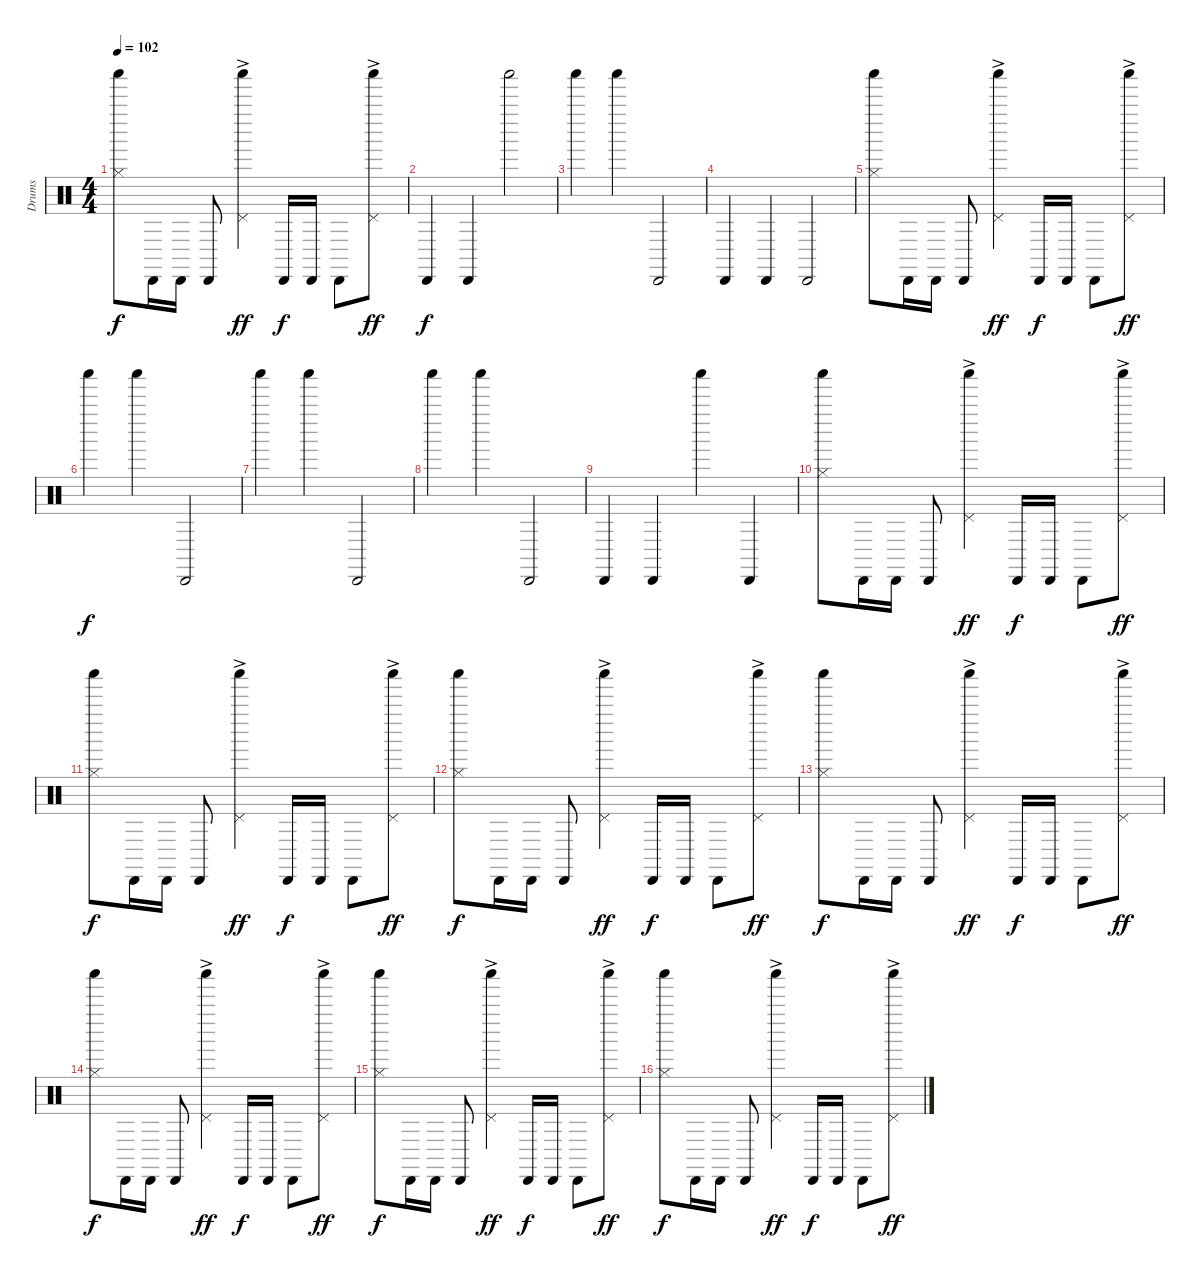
\track ("Drums" "Drums") {instrument percussion}
\staff {score}
\articulation defaults
\ts (4 4)
\tempo 102
\clef neutral
\ks c
("Shaker (hit)" "Hi-Hat (closed)").8{dy f} "Cabasa (hit)".16 "Cabasa (hit)".16 "Cabasa (hit)".8 ("Shaker (hit)" "Pedal Hi-Hat (hit)"{ac}).4{dy ff} "Cabasa (hit)".16{dy f} "Cabasa (hit)".16 "Cabasa (hit)".8 ("Shaker (hit)" "Pedal Hi-Hat (hit)"{ac}).8{dy ff} |
"Cabasa (hit)".4{dy f} "Cabasa (hit)".4 "Shaker (hit)".2 |
"Shaker (hit)".4 "Shaker (hit)".4 "Cabasa (hit)".2 |
"Cabasa (hit)".4 "Cabasa (hit)".4 "Cabasa (hit)".2 |
("Shaker (hit)" "Hi-Hat (closed)").8 "Cabasa (hit)".16 "Cabasa (hit)".16 "Cabasa (hit)".8 ("Shaker (hit)" "Pedal Hi-Hat (hit)"{ac}).4{dy ff} "Cabasa (hit)".16{dy f} "Cabasa (hit)".16 "Cabasa (hit)".8 ("Shaker (hit)" "Pedal Hi-Hat (hit)"{ac}).8{dy ff} |
"Shaker (hit)".4{dy f} "Shaker (hit)".4 "Cabasa (hit)".2 |
"Shaker (hit)".4 "Shaker (hit)".4 "Cabasa (hit)".2 |
"Shaker (hit)".4 "Shaker (hit)".4 "Cabasa (hit)".2 |
"Cabasa (hit)".4 "Cabasa (hit)".4 "Shaker (hit)".4 "Cabasa (hit)".4 |
("Shaker (hit)" "Hi-Hat (closed)").8 "Cabasa (hit)".16 "Cabasa (hit)".16 "Cabasa (hit)".8 ("Shaker (hit)" "Pedal Hi-Hat (hit)"{ac}).4{dy ff} "Cabasa (hit)".16{dy f} "Cabasa (hit)".16 "Cabasa (hit)".8 ("Shaker (hit)" "Pedal Hi-Hat (hit)"{ac}).8{dy ff} |
("Shaker (hit)" "Hi-Hat (closed)").8{dy f} "Cabasa (hit)".16 "Cabasa (hit)".16 "Cabasa (hit)".8 ("Shaker (hit)" "Pedal Hi-Hat (hit)"{ac}).4{dy ff} "Cabasa (hit)".16{dy f} "Cabasa (hit)".16 "Cabasa (hit)".8 ("Shaker (hit)" "Pedal Hi-Hat (hit)"{ac}).8{dy ff} |
("Shaker (hit)" "Hi-Hat (closed)").8{dy f} "Cabasa (hit)".16 "Cabasa (hit)".16 "Cabasa (hit)".8 ("Shaker (hit)" "Pedal Hi-Hat (hit)"{ac}).4{dy ff} "Cabasa (hit)".16{dy f} "Cabasa (hit)".16 "Cabasa (hit)".8 ("Shaker (hit)" "Pedal Hi-Hat (hit)"{ac}).8{dy ff} |
("Shaker (hit)" "Hi-Hat (closed)").8{dy f} "Cabasa (hit)".16 "Cabasa (hit)".16 "Cabasa (hit)".8 ("Shaker (hit)" "Pedal Hi-Hat (hit)"{ac}).4{dy ff} "Cabasa (hit)".16{dy f} "Cabasa (hit)".16 "Cabasa (hit)".8 ("Shaker (hit)" "Pedal Hi-Hat (hit)"{ac}).8{dy ff} |
("Shaker (hit)" "Hi-Hat (closed)").8{dy f} "Cabasa (hit)".16 "Cabasa (hit)".16 "Cabasa (hit)".8 ("Shaker (hit)" "Pedal Hi-Hat (hit)"{ac}).4{dy ff} "Cabasa (hit)".16{dy f} "Cabasa (hit)".16 "Cabasa (hit)".8 ("Shaker (hit)" "Pedal Hi-Hat (hit)"{ac}).8{dy ff} |
("Shaker (hit)" "Hi-Hat (closed)").8{dy f} "Cabasa (hit)".16 "Cabasa (hit)".16 "Cabasa (hit)".8 ("Shaker (hit)" "Pedal Hi-Hat (hit)"{ac}).4{dy ff} "Cabasa (hit)".16{dy f} "Cabasa (hit)".16 "Cabasa (hit)".8 ("Shaker (hit)" "Pedal Hi-Hat (hit)"{ac}).8{dy ff} |
("Shaker (hit)" "Hi-Hat (closed)").8{dy f} "Cabasa (hit)".16 "Cabasa (hit)".16 "Cabasa (hit)".8 ("Shaker (hit)" "Pedal Hi-Hat (hit)"{ac}).4{dy ff} "Cabasa (hit)".16{dy f} "Cabasa (hit)".16 "Cabasa (hit)".8 ("Shaker (hit)" "Pedal Hi-Hat (hit)"{ac}).8{dy ff}
